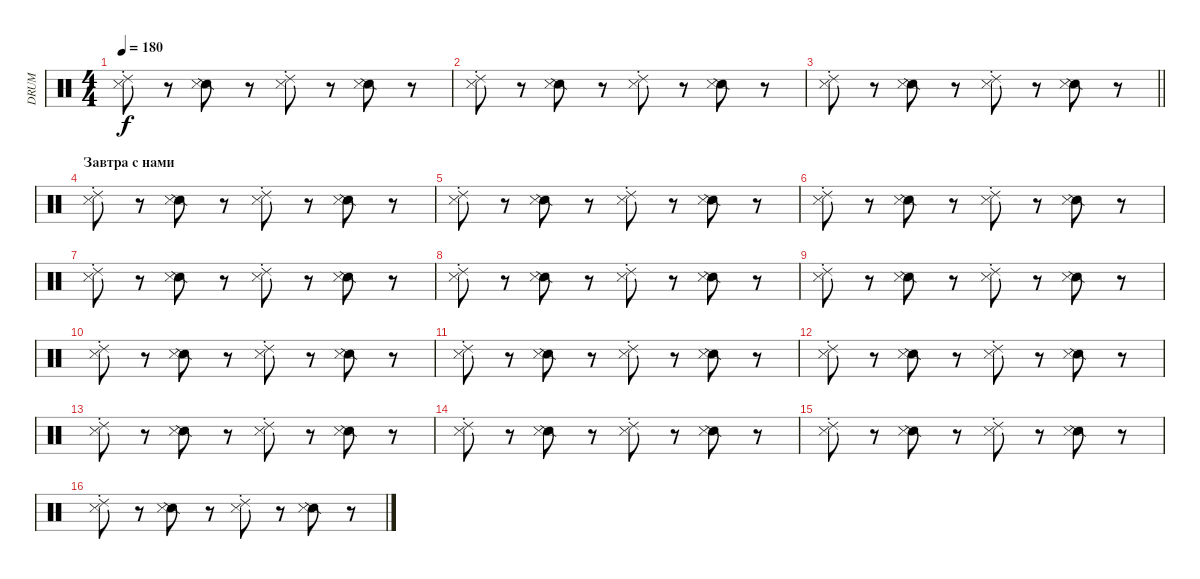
\track ("DRUM" "DRUM") {instrument percussion}
\staff {score}
\articulation defaults
\ts (4 4)
\tempo 180
\clef neutral
\ks c
("Metronome (hit)" "Ride (choke) 2").8{dy f} r.8 ("Snare (side stick) 2" "Metronome (hit)").8 r.8 ("Metronome (hit)" "Ride (choke) 2").8 r.8 ("Snare (side stick) 2" "Metronome (hit)").8 r.8 |
("Metronome (hit)" "Ride (choke) 2").8 r.8 ("Snare (side stick) 2" "Metronome (hit)").8 r.8 ("Metronome (hit)" "Ride (choke) 2").8 r.8 ("Snare (side stick) 2" "Metronome (hit)").8 r.8 |
\barLineRight lightlight
("Metronome (hit)" "Ride (choke) 2").8 r.8 ("Snare (side stick) 2" "Metronome (hit)").8 r.8 ("Metronome (hit)" "Ride (choke) 2").8 r.8 ("Snare (side stick) 2" "Metronome (hit)").8 r.8 |
\section ("" "Завтра с нами")
("Metronome (hit)" "Ride (choke) 2").8 r.8 ("Snare (side stick) 2" "Metronome (hit)").8 r.8 ("Metronome (hit)" "Ride (choke) 2").8 r.8 ("Snare (side stick) 2" "Metronome (hit)").8 r.8 |
("Metronome (hit)" "Ride (choke) 2").8 r.8 ("Snare (side stick) 2" "Metronome (hit)").8 r.8 ("Metronome (hit)" "Ride (choke) 2").8 r.8 ("Snare (side stick) 2" "Metronome (hit)").8 r.8 |
("Metronome (hit)" "Ride (choke) 2").8 r.8 ("Snare (side stick) 2" "Metronome (hit)").8 r.8 ("Metronome (hit)" "Ride (choke) 2").8 r.8 ("Snare (side stick) 2" "Metronome (hit)").8 r.8 |
("Metronome (hit)" "Ride (choke) 2").8 r.8 ("Snare (side stick) 2" "Metronome (hit)").8 r.8 ("Metronome (hit)" "Ride (choke) 2").8 r.8 ("Snare (side stick) 2" "Metronome (hit)").8 r.8 |
("Metronome (hit)" "Ride (choke) 2").8 r.8 ("Snare (side stick) 2" "Metronome (hit)").8 r.8 ("Metronome (hit)" "Ride (choke) 2").8 r.8 ("Snare (side stick) 2" "Metronome (hit)").8 r.8 |
("Metronome (hit)" "Ride (choke) 2").8 r.8 ("Snare (side stick) 2" "Metronome (hit)").8 r.8 ("Metronome (hit)" "Ride (choke) 2").8 r.8 ("Snare (side stick) 2" "Metronome (hit)").8 r.8 |
("Metronome (hit)" "Ride (choke) 2").8 r.8 ("Snare (side stick) 2" "Metronome (hit)").8 r.8 ("Metronome (hit)" "Ride (choke) 2").8 r.8 ("Snare (side stick) 2" "Metronome (hit)").8 r.8 |
("Metronome (hit)" "Ride (choke) 2").8 r.8 ("Snare (side stick) 2" "Metronome (hit)").8 r.8 ("Metronome (hit)" "Ride (choke) 2").8 r.8 ("Snare (side stick) 2" "Metronome (hit)").8 r.8 |
("Metronome (hit)" "Ride (choke) 2").8 r.8 ("Snare (side stick) 2" "Metronome (hit)").8 r.8 ("Metronome (hit)" "Ride (choke) 2").8 r.8 ("Snare (side stick) 2" "Metronome (hit)").8 r.8 |
("Metronome (hit)" "Ride (choke) 2").8 r.8 ("Snare (side stick) 2" "Metronome (hit)").8 r.8 ("Metronome (hit)" "Ride (choke) 2").8 r.8 ("Snare (side stick) 2" "Metronome (hit)").8 r.8 |
("Metronome (hit)" "Ride (choke) 2").8 r.8 ("Snare (side stick) 2" "Metronome (hit)").8 r.8 ("Metronome (hit)" "Ride (choke) 2").8 r.8 ("Snare (side stick) 2" "Metronome (hit)").8 r.8 |
("Metronome (hit)" "Ride (choke) 2").8 r.8 ("Snare (side stick) 2" "Metronome (hit)").8 r.8 ("Metronome (hit)" "Ride (choke) 2").8 r.8 ("Snare (side stick) 2" "Metronome (hit)").8 r.8 |
("Metronome (hit)" "Ride (choke) 2").8 r.8 ("Snare (side stick) 2" "Metronome (hit)").8 r.8 ("Metronome (hit)" "Ride (choke) 2").8 r.8 ("Snare (side stick) 2" "Metronome (hit)").8 r.8
